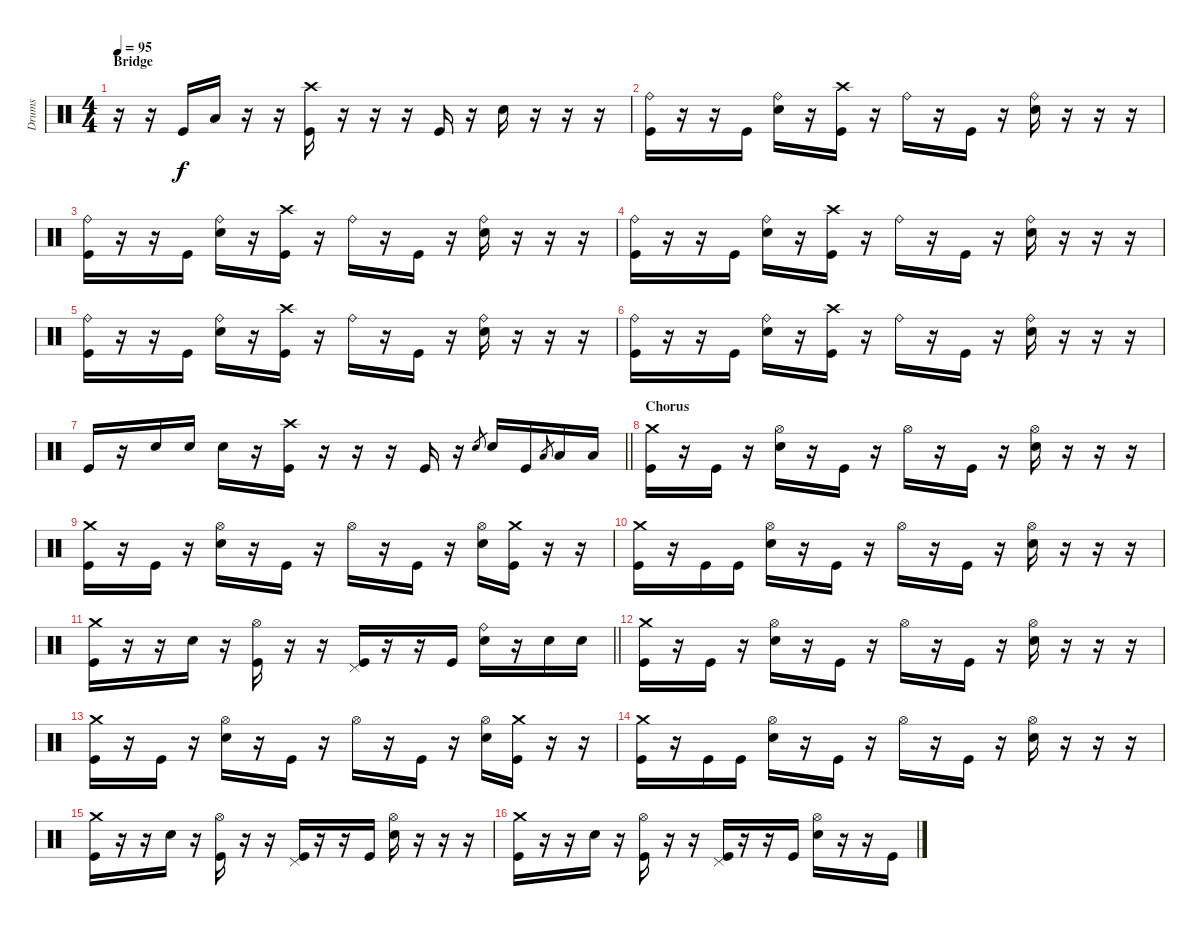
\track ("Drums" "Drums") {instrument percussion}
\staff {score}
\articulation defaults
\ts (4 4)
\section ("" "Bridge")
\tempo 95
\clef neutral
\ks c
r.16{dy f} r.16 "Kick (hit)".16 "Low Tom (hit)".16 r.16 r.16 ("Crash high (hit)" "Kick (hit)").16 r.16 r.16 r.16 "Kick (hit)".16 r.16 "Electric Snare (hit)".16 r.16 r.16 r.16 |
("Ride (bell)" "Kick (hit)").16 r.16 r.16 "Kick (hit)".16 ("Ride (bell)" "Electric Snare (hit)").16 r.16 ("Crash high (hit)" "Kick (hit)").16 r.16 "Ride (bell)".16 r.16 "Kick (hit)".16 r.16 ("Ride (bell)" "Electric Snare (hit)").16 r.16 r.16 r.16 |
("Ride (bell)" "Kick (hit)").16 r.16 r.16 "Kick (hit)".16 ("Ride (bell)" "Electric Snare (hit)").16 r.16 ("Crash high (hit)" "Kick (hit)").16 r.16 "Ride (bell)".16 r.16 "Kick (hit)".16 r.16 ("Ride (bell)" "Electric Snare (hit)").16 r.16 r.16 r.16 |
("Ride (bell)" "Kick (hit)").16 r.16 r.16 "Kick (hit)".16 ("Ride (bell)" "Electric Snare (hit)").16 r.16 ("Crash high (hit)" "Kick (hit)").16 r.16 "Ride (bell)".16 r.16 "Kick (hit)".16 r.16 ("Ride (bell)" "Electric Snare (hit)").16 r.16 r.16 r.16 |
("Ride (bell)" "Kick (hit)").16 r.16 r.16 "Kick (hit)".16 ("Ride (bell)" "Electric Snare (hit)").16 r.16 ("Crash high (hit)" "Kick (hit)").16 r.16 "Ride (bell)".16 r.16 "Kick (hit)".16 r.16 ("Ride (bell)" "Electric Snare (hit)").16 r.16 r.16 r.16 |
("Ride (bell)" "Kick (hit)").16 r.16 r.16 "Kick (hit)".16 ("Ride (bell)" "Electric Snare (hit)").16 r.16 ("Crash high (hit)" "Kick (hit)").16 r.16 "Ride (bell)".16 r.16 "Kick (hit)".16 r.16 ("Ride (bell)" "Electric Snare (hit)").16 r.16 r.16 r.16 |
\barLineRight lightlight "Kick (hit)".16
r.16 "Electric Snare (hit)".16 "Electric Snare (hit)".16 "Electric Snare (hit)".16 r.16 ("Crash high (hit)" "Kick (hit)").16 r.16 r.16 r.16 "Kick (hit)".16 r.16 "Electric Snare (hit)".8{gr} "Electric Snare (hit)".16 "Kick (hit)".16 "Low Floor Tom (hit)".8{gr} "Low Floor Tom (hit)".16 "Low Floor Tom (hit)".16 |
\section ("" "Chorus")
("Crash medium (hit)" "Kick (hit)").16 r.16 "Kick (hit)".16 r.16 ("Hi-Hat (open)" "Electric Snare (hit)").16 r.16 "Kick (hit)".16 r.16 "Hi-Hat (open)".16 r.16 "Kick (hit)".16 r.16 ("Hi-Hat (open)" "Electric Snare (hit)").16 r.16 r.16 r.16 |
("Crash medium (hit)" "Kick (hit)").16 r.16 "Kick (hit)".16 r.16 ("Hi-Hat (open)" "Electric Snare (hit)").16 r.16 "Kick (hit)".16 r.16 "Hi-Hat (open)".16 r.16 "Kick (hit)".16 r.16 ("Hi-Hat (open)" "Electric Snare (hit)").16 ("Crash medium (hit)" "Kick (hit)").16 r.16 r.16 |
("Crash medium (hit)" "Kick (hit)").16 r.16 "Kick (hit)".16 "Kick (hit)".16 ("Hi-Hat (open)" "Electric Snare (hit)").16 r.16 "Kick (hit)".16 r.16 "Hi-Hat (open)".16 r.16 "Kick (hit)".16 r.16 ("Hi-Hat (open)" "Electric Snare (hit)").16 r.16 r.16 r.16 |
\barLineRight lightlight
("Crash medium (hit)" "Kick (hit)").16 r.16 r.16 "Electric Snare (hit)".16 r.16 ("Hi-Hat (open)" "Kick (hit)").16 r.16 r.16 ("Pedal Hi-Hat (hit)" "Kick (hit)").16 r.16 r.16 "Kick (hit)".16 ("Ride (bell)" "Electric Snare (hit)").16 r.16 "Electric Snare (hit)".16 "Electric Snare (hit)".16 |
("Crash medium (hit)" "Kick (hit)").16 r.16 "Kick (hit)".16 r.16 ("Hi-Hat (open)" "Electric Snare (hit)").16 r.16 "Kick (hit)".16 r.16 "Hi-Hat (open)".16 r.16 "Kick (hit)".16 r.16 ("Hi-Hat (open)" "Electric Snare (hit)").16 r.16 r.16 r.16 |
("Crash medium (hit)" "Kick (hit)").16 r.16 "Kick (hit)".16 r.16 ("Hi-Hat (open)" "Electric Snare (hit)").16 r.16 "Kick (hit)".16 r.16 "Hi-Hat (open)".16 r.16 "Kick (hit)".16 r.16 ("Hi-Hat (open)" "Electric Snare (hit)").16 ("Crash medium (hit)" "Kick (hit)").16 r.16 r.16 |
("Crash medium (hit)" "Kick (hit)").16 r.16 "Kick (hit)".16 "Kick (hit)".16 ("Hi-Hat (open)" "Electric Snare (hit)").16 r.16 "Kick (hit)".16 r.16 "Hi-Hat (open)".16 r.16 "Kick (hit)".16 r.16 ("Hi-Hat (open)" "Electric Snare (hit)").16 r.16 r.16 r.16 |
("Crash medium (hit)" "Kick (hit)").16 r.16 r.16 "Electric Snare (hit)".16 r.16 ("Hi-Hat (open)" "Kick (hit)").16 r.16 r.16 ("Pedal Hi-Hat (hit)" "Kick (hit)").16 r.16 r.16 "Kick (hit)".16 ("Hi-Hat (open)" "Electric Snare (hit)").16 r.16 r.16 r.16 |
("Crash medium (hit)" "Kick (hit)").16 r.16 r.16 "Electric Snare (hit)".16 r.16 ("Hi-Hat (open)" "Kick (hit)").16 r.16 r.16 ("Pedal Hi-Hat (hit)" "Kick (hit)").16 r.16 r.16 "Kick (hit)".16 ("Hi-Hat (open)" "Electric Snare (hit)").16 r.16 r.16 "Kick (hit)".16
